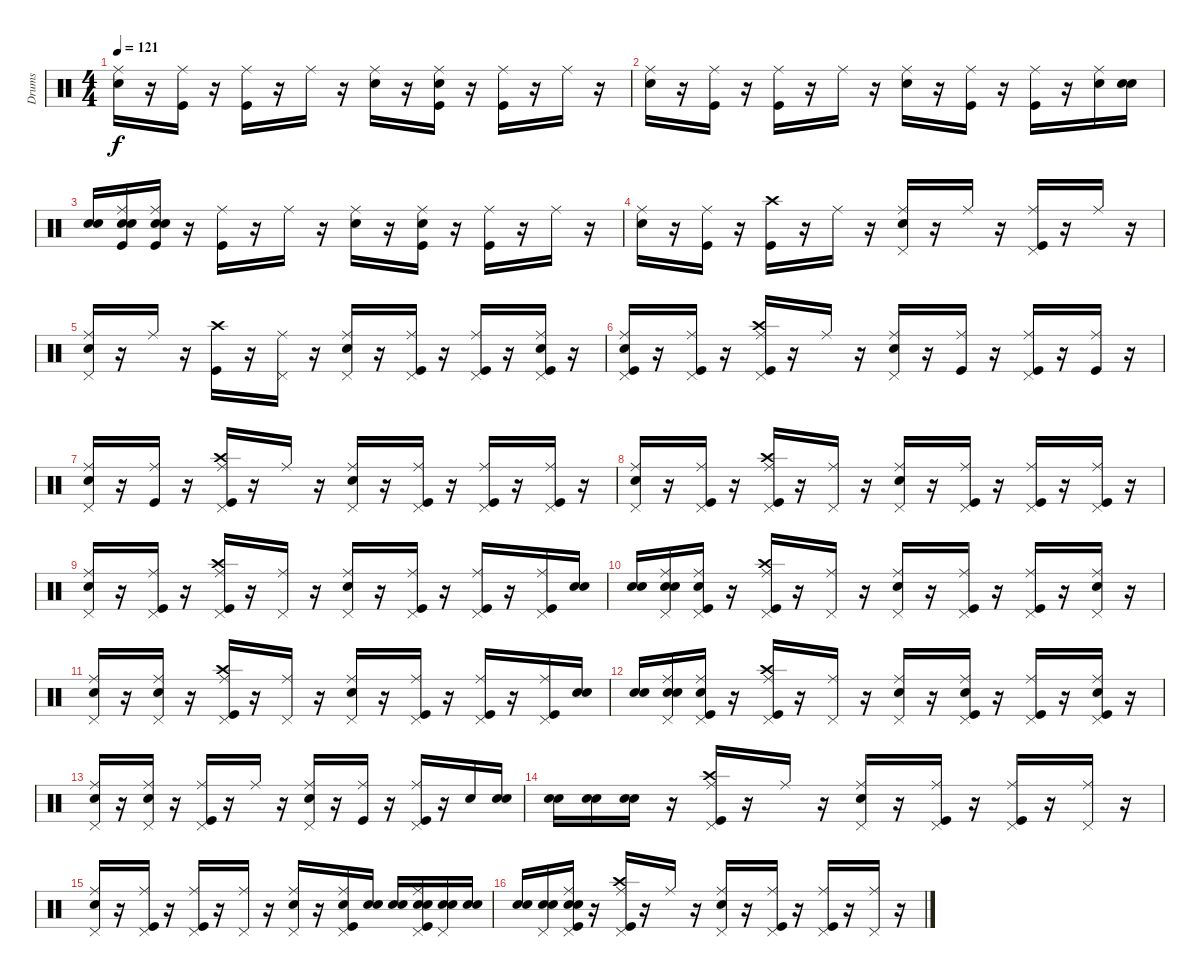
\track ("Drums" "Drums") {instrument percussion}
\staff {score}
\articulation defaults
\ts (4 4)
\tempo 121
\clef neutral
\ks c
("Snare (hit) 2" "Ride (middle)").16{dy f} r.16 ("Kick (hit)" "Ride (middle)").16 r.16 ("Ride (middle)" "Kick (hit)").16 r.16 "Ride (middle)".16 r.16 ("Snare (hit) 2" "Ride (middle)").16 r.16 ("Kick (hit)" "Ride (middle)" "Snare (hit) 2").16 r.16 ("Kick (hit)" "Ride (middle)").16 r.16 "Ride (middle)".16 r.16 |
("Snare (hit) 2" "Ride (middle)").16 r.16 ("Kick (hit)" "Ride (middle)").16 r.16 ("Ride (middle)" "Kick (hit)").16 r.16 "Ride (middle)".16 r.16 ("Snare (hit) 2" "Ride (middle)").16 r.16 ("Kick (hit)" "Ride (middle)").16 r.16 ("Kick (hit)" "Ride (middle)").16 r.16 ("Snare (hit) 2" "Ride (middle)").16 ("Snare (hit)" "Snare (hit) 2").16 |
("Snare (hit)" "Snare (hit) 2").16 ("Snare (hit)" "Kick (hit)" "Ride (middle)" "Snare (hit) 2").16 ("Snare (hit)" "Kick (hit)" "Snare (hit) 2" "Ride (middle)").16 r.16 ("Ride (middle)" "Kick (hit)").16 r.16 "Ride (middle)".16 r.16 ("Snare (hit) 2" "Ride (middle)").16 r.16 ("Kick (hit)" "Ride (middle)" "Snare (hit) 2").16 r.16 ("Kick (hit)" "Ride (middle)").16 r.16 "Ride (middle)".16 r.16 |
("Snare (hit) 2" "Ride (middle)").16 r.16 ("Ride (middle)" "Kick (hit)").16 r.16 ("Crash high (hit)" "Kick (hit)").16 r.16 "Ride (middle)".16 r.16 ("Snare (hit) 2" "Ride (middle)" "Pedal Hi-Hat (hit)").16 r.16 "Ride (middle)".16 r.16 ("Kick (hit)" "Ride (middle)" "Pedal Hi-Hat (hit)").16 r.16 "Ride (middle)".16 r.16 |
("Snare (hit) 2" "Ride (middle)" "Pedal Hi-Hat (hit)").16 r.16 "Ride (middle)".16 r.16 ("Crash high (hit)" "Kick (hit)").16 r.16 ("Pedal Hi-Hat (hit)" "Ride (middle)").16 r.16 ("Pedal Hi-Hat (hit)" "Snare (hit) 2" "Ride (middle)").16 r.16 ("Kick (hit)" "Pedal Hi-Hat (hit)" "Ride (middle)").16 r.16 ("Kick (hit)" "Ride (middle)" "Pedal Hi-Hat (hit)").16 r.16 ("Kick (hit)" "Pedal Hi-Hat (hit)" "Snare (hit) 2" "Ride (middle)").16 r.16 |
("Kick (hit)" "Snare (hit) 2" "Ride (middle)" "Pedal Hi-Hat (hit)").16 r.16 ("Kick (hit)" "Ride (middle)" "Pedal Hi-Hat (hit)").16 r.16 ("Pedal Hi-Hat (hit)" "Kick (hit)" "Crash high (hit)" "Ride (middle)").16 r.16 "Ride (middle)".16 r.16 ("Snare (hit) 2" "Ride (middle)" "Pedal Hi-Hat (hit)").16 r.16 ("Kick (hit)" "Ride (middle)").16 r.16 ("Kick (hit)" "Ride (middle)" "Pedal Hi-Hat (hit)").16 r.16 ("Kick (hit)" "Ride (middle)").16 r.16 |
("Snare (hit) 2" "Pedal Hi-Hat (hit)" "Ride (middle)").16 r.16 ("Kick (hit)" "Ride (middle)").16 r.16 ("Pedal Hi-Hat (hit)" "Kick (hit)" "Crash high (hit)" "Ride (middle)").16 r.16 "Ride (middle)".16 r.16 ("Snare (hit) 2" "Pedal Hi-Hat (hit)" "Ride (middle)").16 r.16 ("Kick (hit)" "Ride (middle)" "Pedal Hi-Hat (hit)").16 r.16 ("Kick (hit)" "Ride (middle)" "Pedal Hi-Hat (hit)").16 r.16 ("Kick (hit)" "Ride (middle)" "Pedal Hi-Hat (hit)").16 r.16 |
("Snare (hit) 2" "Pedal Hi-Hat (hit)" "Ride (middle)").16 r.16 ("Kick (hit)" "Ride (middle)" "Pedal Hi-Hat (hit)").16 r.16 ("Pedal Hi-Hat (hit)" "Kick (hit)" "Crash high (hit)" "Ride (middle)").16 r.16 ("Pedal Hi-Hat (hit)" "Ride (middle)").16 r.16 ("Snare (hit) 2" "Ride (middle)" "Pedal Hi-Hat (hit)").16 r.16 ("Kick (hit)" "Ride (middle)" "Pedal Hi-Hat (hit)").16 r.16 ("Kick (hit)" "Ride (middle)" "Pedal Hi-Hat (hit)").16 r.16 ("Kick (hit)" "Ride (middle)" "Pedal Hi-Hat (hit)").16 r.16 |
("Snare (hit) 2" "Ride (middle)" "Pedal Hi-Hat (hit)").16 r.16 ("Kick (hit)" "Pedal Hi-Hat (hit)" "Ride (middle)").16 r.16 ("Pedal Hi-Hat (hit)" "Kick (hit)" "Crash high (hit)" "Ride (middle)").16 r.16 ("Pedal Hi-Hat (hit)" "Ride (middle)").16 r.16 ("Snare (hit) 2" "Ride (middle)" "Pedal Hi-Hat (hit)").16 r.16 ("Kick (hit)" "Pedal Hi-Hat (hit)" "Ride (middle)").16 r.16 ("Kick (hit)" "Ride (middle)" "Pedal Hi-Hat (hit)").16 r.16 ("Kick (hit)" "Ride (middle)" "Pedal Hi-Hat (hit)").16 ("Snare (hit)" "Snare (hit) 2").16 |
("Snare (hit)" "Snare (hit) 2").16 ("Snare (hit)" "Snare (hit) 2" "Ride (middle)" "Pedal Hi-Hat (hit)").16 ("Snare (hit)" "Kick (hit)" "Pedal Hi-Hat (hit)" "Ride (middle)").16 r.16 ("Pedal Hi-Hat (hit)" "Kick (hit)" "Crash high (hit)" "Ride (middle)").16 r.16 ("Pedal Hi-Hat (hit)" "Ride (middle)").16 r.16 ("Snare (hit) 2" "Ride (middle)" "Pedal Hi-Hat (hit)").16 r.16 ("Kick (hit)" "Pedal Hi-Hat (hit)" "Ride (middle)").16 r.16 ("Kick (hit)" "Ride (middle)" "Pedal Hi-Hat (hit)").16 r.16 ("Snare (hit) 2" "Pedal Hi-Hat (hit)" "Ride (middle)").16 r.16 |
("Snare (hit) 2" "Pedal Hi-Hat (hit)" "Ride (middle)").16 r.16 ("Snare (hit) 2" "Pedal Hi-Hat (hit)" "Ride (middle)").16 r.16 ("Pedal Hi-Hat (hit)" "Kick (hit)" "Crash high (hit)" "Ride (middle)").16 r.16 ("Pedal Hi-Hat (hit)" "Ride (middle)").16 r.16 ("Snare (hit) 2" "Pedal Hi-Hat (hit)" "Ride (middle)").16 r.16 ("Kick (hit)" "Ride (middle)" "Pedal Hi-Hat (hit)").16 r.16 ("Kick (hit)" "Pedal Hi-Hat (hit)" "Ride (middle)").16 r.16 ("Kick (hit)" "Pedal Hi-Hat (hit)" "Ride (middle)").16 ("Snare (hit)" "Snare (hit) 2").16 |
("Snare (hit)" "Snare (hit) 2").16 ("Snare (hit)" "Snare (hit) 2" "Pedal Hi-Hat (hit)" "Ride (middle)").16 ("Snare (hit)" "Kick (hit)" "Ride (middle)" "Pedal Hi-Hat (hit)").16 r.16 ("Pedal Hi-Hat (hit)" "Kick (hit)" "Crash high (hit)" "Ride (middle)").16 r.16 ("Pedal Hi-Hat (hit)" "Ride (middle)").16 r.16 ("Snare (hit) 2" "Ride (middle)" "Pedal Hi-Hat (hit)").16 r.16 ("Kick (hit)" "Pedal Hi-Hat (hit)" "Snare (hit) 2" "Ride (middle)").16 r.16 ("Kick (hit)" "Ride (middle)" "Pedal Hi-Hat (hit)").16 r.16 ("Kick (hit)" "Snare (hit) 2" "Ride (middle)" "Pedal Hi-Hat (hit)").16 r.16 |
("Pedal Hi-Hat (hit)" "Snare (hit) 2" "Ride (middle)").16 r.16 ("Snare (hit) 2" "Ride (middle)" "Pedal Hi-Hat (hit)").16 r.16 ("Pedal Hi-Hat (hit)" "Kick (hit)" "Ride (middle)").16 r.16 "Ride (middle)".16 r.16 ("Snare (hit) 2" "Ride (middle)" "Pedal Hi-Hat (hit)").16 r.16 ("Kick (hit)" "Ride (middle)").16 r.16 ("Kick (hit)" "Pedal Hi-Hat (hit)" "Ride (middle)").16 r.16 "Snare (hit) 2".16 ("Snare (hit)" "Snare (hit) 2").16 |
("Snare (hit)" "Snare (hit) 2").16 ("Snare (hit)" "Snare (hit) 2").16 ("Snare (hit)" "Snare (hit) 2").16 r.16 ("Pedal Hi-Hat (hit)" "Kick (hit)" "Crash high (hit)" "Ride (middle)").16 r.16 "Ride (middle)".16 r.16 ("Snare (hit) 2" "Ride (middle)" "Pedal Hi-Hat (hit)").16 r.16 ("Kick (hit)" "Pedal Hi-Hat (hit)" "Ride (middle)").16 r.16 ("Kick (hit)" "Pedal Hi-Hat (hit)" "Ride (middle)").16 r.16 ("Pedal Hi-Hat (hit)" "Ride (middle)").16 r.16 |
("Snare (hit) 2" "Ride (middle)" "Pedal Hi-Hat (hit)").16 r.16 ("Kick (hit)" "Ride (middle)" "Pedal Hi-Hat (hit)").16 r.16 ("Pedal Hi-Hat (hit)" "Kick (hit)" "Ride (middle)").16 r.16 ("Pedal Hi-Hat (hit)" "Ride (middle)").16 r.16 ("Snare (hit) 2" "Ride (middle)" "Pedal Hi-Hat (hit)").16 r.16 ("Kick (hit)" "Snare (hit) 2" "Ride (middle)" "Pedal Hi-Hat (hit)").16 ("Snare (hit)" "Snare (hit) 2").16 ("Snare (hit)" "Snare (hit) 2").16 ("Snare (hit)" "Kick (hit)" "Pedal Hi-Hat (hit)" "Snare (hit) 2" "Ride (middle)").16 ("Snare (hit)" "Snare (hit) 2" "Pedal Hi-Hat (hit)").16 ("Snare (hit)" "Snare (hit) 2").16 |
("Snare (hit)" "Snare (hit) 2").16 ("Snare (hit)" "Snare (hit) 2" "Pedal Hi-Hat (hit)").16 ("Snare (hit)" "Kick (hit)" "Pedal Hi-Hat (hit)" "Snare (hit) 2" "Ride (middle)").16 r.16 ("Pedal Hi-Hat (hit)" "Kick (hit)" "Crash high (hit)" "Ride (middle)").16 r.16 "Ride (middle)".16 r.16 ("Snare (hit) 2" "Ride (middle)" "Pedal Hi-Hat (hit)").16 r.16 ("Kick (hit)" "Ride (middle)" "Pedal Hi-Hat (hit)").16 r.16 ("Kick (hit)" "Ride (middle)" "Pedal Hi-Hat (hit)").16 r.16 ("Pedal Hi-Hat (hit)" "Ride (middle)").16 r.16
